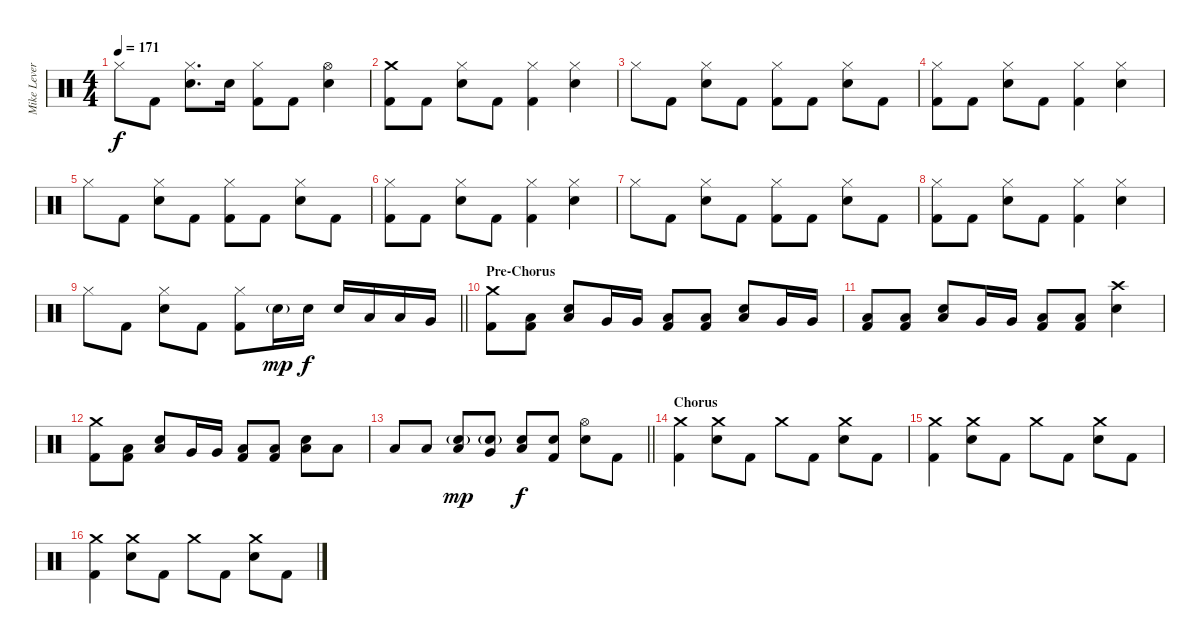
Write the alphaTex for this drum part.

\track ("Mike Leverence - Drums" "Mike Lever") {instrument percussion}
\staff {score}
\articulation defaults
\ts (4 4)
\tempo 171
\clef neutral
\ks c "Hi-Hat (closed)".8{dy f} "Kick (hit) 2".8
("Hi-Hat (closed)" "Electric Snare (hit)").8{d} "Electric Snare (hit)".16 ("Hi-Hat (closed)" "Kick (hit) 2").8 "Kick (hit) 2".8 ("Hi-Hat (open)" "Electric Snare (hit)").4 |
("Crash medium (hit)" "Kick (hit) 2").8 "Kick (hit) 2".8 ("Hi-Hat (closed)" "Electric Snare (hit)").8 "Kick (hit) 2".8 ("Hi-Hat (closed)" "Kick (hit) 2").4 ("Hi-Hat (closed)" "Electric Snare (hit)").4 |
"Hi-Hat (closed)".8 "Kick (hit) 2".8 ("Hi-Hat (closed)" "Electric Snare (hit)").8 "Kick (hit) 2".8 ("Hi-Hat (closed)" "Kick (hit) 2").8 "Kick (hit) 2".8 ("Hi-Hat (closed)" "Electric Snare (hit)").8 "Kick (hit) 2".8 |
("Hi-Hat (closed)" "Kick (hit) 2").8 "Kick (hit) 2".8 ("Hi-Hat (closed)" "Electric Snare (hit)").8 "Kick (hit) 2".8 ("Hi-Hat (closed)" "Kick (hit) 2").4 ("Hi-Hat (closed)" "Electric Snare (hit)").4 |
"Hi-Hat (closed)".8 "Kick (hit) 2".8 ("Hi-Hat (closed)" "Electric Snare (hit)").8 "Kick (hit) 2".8 ("Hi-Hat (closed)" "Kick (hit) 2").8 "Kick (hit) 2".8 ("Hi-Hat (closed)" "Electric Snare (hit)").8 "Kick (hit) 2".8 |
("Hi-Hat (closed)" "Kick (hit) 2").8 "Kick (hit) 2".8 ("Hi-Hat (closed)" "Electric Snare (hit)").8 "Kick (hit) 2".8 ("Hi-Hat (closed)" "Kick (hit) 2").4 ("Hi-Hat (closed)" "Electric Snare (hit)").4 |
"Hi-Hat (closed)".8 "Kick (hit) 2".8 ("Hi-Hat (closed)" "Electric Snare (hit)").8 "Kick (hit) 2".8 ("Hi-Hat (closed)" "Kick (hit) 2").8 "Kick (hit) 2".8 ("Hi-Hat (closed)" "Electric Snare (hit)").8 "Kick (hit) 2".8 |
("Hi-Hat (closed)" "Kick (hit) 2").8 "Kick (hit) 2".8 ("Hi-Hat (closed)" "Electric Snare (hit)").8 "Kick (hit) 2".8 ("Hi-Hat (closed)" "Kick (hit) 2").4 ("Hi-Hat (closed)" "Electric Snare (hit)").4 |
\barLineRight lightlight "Hi-Hat (closed)".8 "Kick (hit) 2".8
("Hi-Hat (closed)" "Electric Snare (hit)").8 "Kick (hit) 2".8 ("Hi-Hat (closed)" "Kick (hit) 2").8 "Electric Snare (hit)"{g}.16{dy mp} "Electric Snare (hit)".16{dy f} "Electric Snare (hit)".16 "Low Tom (hit)".16 "Low Tom (hit)".16 "Very Low Tom (hit)".16 |
\section ("" "Pre-Chorus")
("Crash medium (hit)" "Kick (hit) 2").8 ("Low Floor Tom (hit)" "Kick (hit) 2").8 ("Low Floor Tom (hit)" "Electric Snare (hit)").8 "Very Low Tom (hit)".16 "Very Low Tom (hit)".16 ("Low Floor Tom (hit)" "Kick (hit) 2").8 ("Low Floor Tom (hit)" "Kick (hit) 2").8 ("Low Floor Tom (hit)" "Electric Snare (hit)").8 "Very Low Tom (hit)".16 "Very Low Tom (hit)".16 |
("Low Floor Tom (hit)" "Kick (hit) 2").8 ("Low Floor Tom (hit)" "Kick (hit) 2").8 ("Low Floor Tom (hit)" "Electric Snare (hit)").8 "Very Low Tom (hit)".16 "Very Low Tom (hit)".16 ("Low Floor Tom (hit)" "Kick (hit) 2").8 ("Low Floor Tom (hit)" "Kick (hit) 2").8 ("Crash high (hit)" "Electric Snare (hit)").4 |
("Crash medium (hit)" "Kick (hit) 2").8 ("Low Floor Tom (hit)" "Kick (hit) 2").8 ("Low Floor Tom (hit)" "Electric Snare (hit)").8 "Very Low Tom (hit)".16 "Very Low Tom (hit)".16 ("Low Floor Tom (hit)" "Kick (hit) 2").8 ("Low Floor Tom (hit)" "Kick (hit) 2").8 ("Low Floor Tom (hit)" "Electric Snare (hit)").8 "Low Floor Tom (hit)".8 |
\barLineRight lightlight "Low Floor Tom (hit)".8 "Low Floor Tom (hit)".8
("Electric Snare (hit)"{g} "Low Floor Tom (hit)").8{dy mp} ("Electric Snare (hit)"{g} "Very Low Tom (hit)").8 ("Electric Snare (hit)" "Low Tom (hit)").8{dy f} ("Electric Snare (hit)" "Kick (hit) 2").8 ("Hi-Hat (open)" "Electric Snare (hit)").8 "Kick (hit) 2".8 |
\section ("" "Chorus")
("Crash medium (hit)" "Kick (hit) 2").4 ("Crash medium (hit)" "Electric Snare (hit)").8 "Kick (hit) 2".8 "Crash medium (hit)".8 "Kick (hit) 2".8 ("Crash medium (hit)" "Electric Snare (hit)").8 "Kick (hit) 2".8 |
("Crash medium (hit)" "Kick (hit) 2").4 ("Crash medium (hit)" "Electric Snare (hit)").8 "Kick (hit) 2".8 "Crash medium (hit)".8 "Kick (hit) 2".8 ("Crash medium (hit)" "Electric Snare (hit)").8 "Kick (hit) 2".8 |
("Crash medium (hit)" "Kick (hit) 2").4 ("Crash medium (hit)" "Electric Snare (hit)").8 "Kick (hit) 2".8 "Crash medium (hit)".8 "Kick (hit) 2".8 ("Crash medium (hit)" "Electric Snare (hit)").8 "Kick (hit) 2".8
